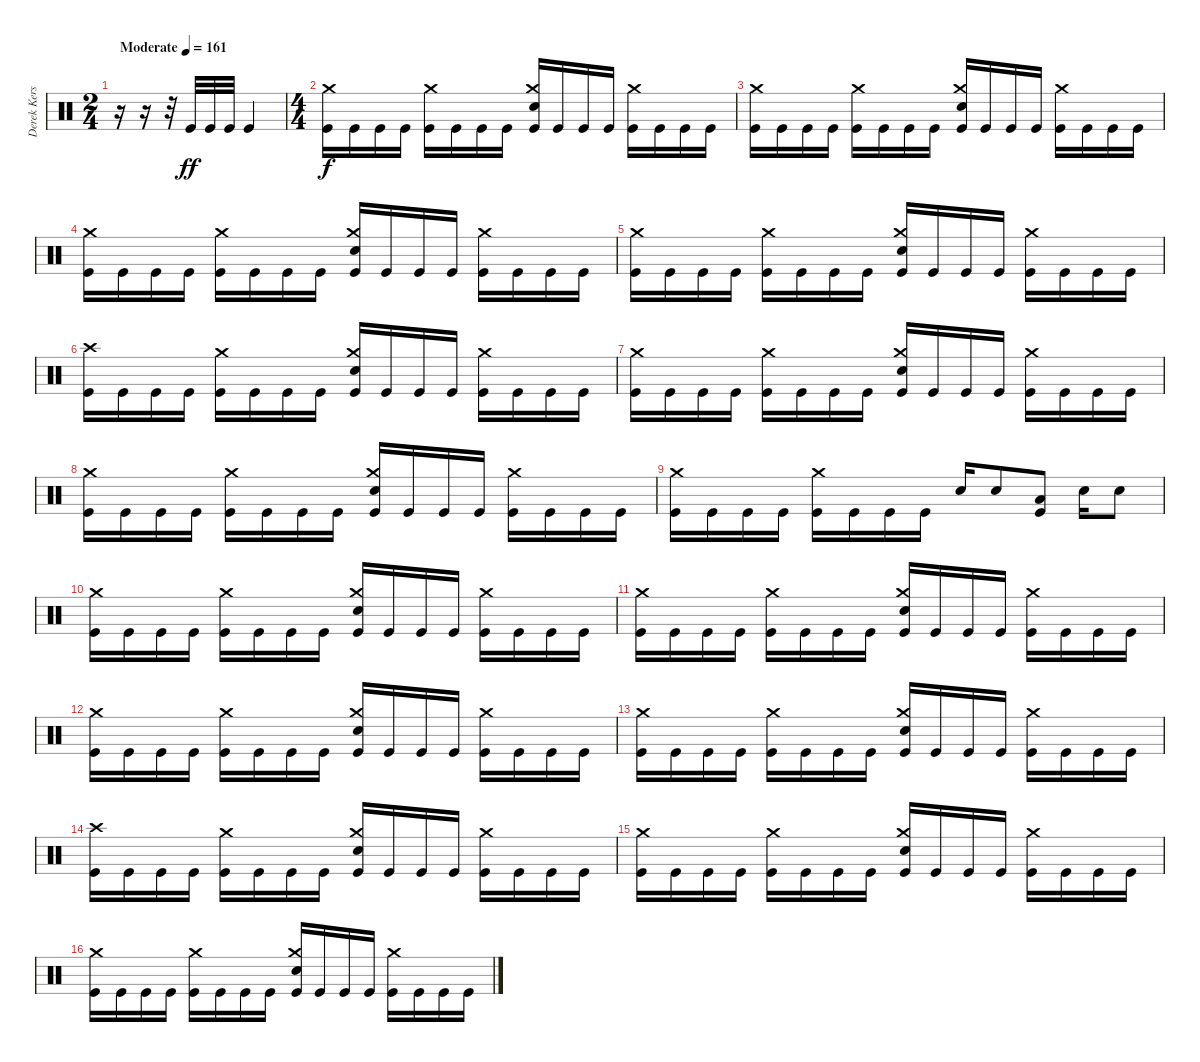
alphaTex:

\track ("Derek Kerswill" "Derek Kers") {instrument percussion}
\staff {score}
\articulation defaults
\ts (2 4)
\tempo (161 "Moderate")
\clef neutral
\ks c
r.16{dy ff} r.16 r.32 "Kick (hit)".32 "Kick (hit)".32 "Kick (hit)".32 "Kick (hit)".4 |
\ts (4 4)
("Crash medium (hit)" "Kick (hit)").16{dy f} "Kick (hit)".16 "Kick (hit)".16 "Kick (hit)".16 ("Crash medium (hit)" "Kick (hit)").16 "Kick (hit)".16 "Kick (hit)".16 "Kick (hit)".16 ("Crash medium (hit)" "Electric Snare (hit)" "Kick (hit)").16 "Kick (hit)".16 "Kick (hit)".16 "Kick (hit)".16 ("Crash medium (hit)" "Kick (hit)").16 "Kick (hit)".16 "Kick (hit)".16 "Kick (hit)".16 |
("Crash medium (hit)" "Kick (hit)").16 "Kick (hit)".16 "Kick (hit)".16 "Kick (hit)".16 ("Crash medium (hit)" "Kick (hit)").16 "Kick (hit)".16 "Kick (hit)".16 "Kick (hit)".16 ("Crash medium (hit)" "Electric Snare (hit)" "Kick (hit)").16 "Kick (hit)".16 "Kick (hit)".16 "Kick (hit)".16 ("Crash medium (hit)" "Kick (hit)").16 "Kick (hit)".16 "Kick (hit)".16 "Kick (hit)".16 |
("Crash medium (hit)" "Kick (hit)").16 "Kick (hit)".16 "Kick (hit)".16 "Kick (hit)".16 ("Crash medium (hit)" "Kick (hit)").16 "Kick (hit)".16 "Kick (hit)".16 "Kick (hit)".16 ("Crash medium (hit)" "Electric Snare (hit)" "Kick (hit)").16 "Kick (hit)".16 "Kick (hit)".16 "Kick (hit)".16 ("Crash medium (hit)" "Kick (hit)").16 "Kick (hit)".16 "Kick (hit)".16 "Kick (hit)".16 |
("Crash medium (hit)" "Kick (hit)").16 "Kick (hit)".16 "Kick (hit)".16 "Kick (hit)".16 ("Crash medium (hit)" "Kick (hit)").16 "Kick (hit)".16 "Kick (hit)".16 "Kick (hit)".16 ("Crash medium (hit)" "Electric Snare (hit)" "Kick (hit)").16 "Kick (hit)".16 "Kick (hit)".16 "Kick (hit)".16 ("Crash medium (hit)" "Kick (hit)").16 "Kick (hit)".16 "Kick (hit)".16 "Kick (hit)".16 |
("Crash high (hit)" "Kick (hit)").16 "Kick (hit)".16 "Kick (hit)".16 "Kick (hit)".16 ("Crash medium (hit)" "Kick (hit)").16 "Kick (hit)".16 "Kick (hit)".16 "Kick (hit)".16 ("Crash medium (hit)" "Electric Snare (hit)" "Kick (hit)").16 "Kick (hit)".16 "Kick (hit)".16 "Kick (hit)".16 ("Crash medium (hit)" "Kick (hit)").16 "Kick (hit)".16 "Kick (hit)".16 "Kick (hit)".16 |
("Crash medium (hit)" "Kick (hit)").16 "Kick (hit)".16 "Kick (hit)".16 "Kick (hit)".16 ("Crash medium (hit)" "Kick (hit)").16 "Kick (hit)".16 "Kick (hit)".16 "Kick (hit)".16 ("Crash medium (hit)" "Electric Snare (hit)" "Kick (hit)").16 "Kick (hit)".16 "Kick (hit)".16 "Kick (hit)".16 ("Crash medium (hit)" "Kick (hit)").16 "Kick (hit)".16 "Kick (hit)".16 "Kick (hit)".16 |
("Crash medium (hit)" "Kick (hit)").16 "Kick (hit)".16 "Kick (hit)".16 "Kick (hit)".16 ("Crash medium (hit)" "Kick (hit)").16 "Kick (hit)".16 "Kick (hit)".16 "Kick (hit)".16 ("Crash medium (hit)" "Electric Snare (hit)" "Kick (hit)").16 "Kick (hit)".16 "Kick (hit)".16 "Kick (hit)".16 ("Crash medium (hit)" "Kick (hit)").16 "Kick (hit)".16 "Kick (hit)".16 "Kick (hit)".16 |
("Crash medium (hit)" "Kick (hit)").16 "Kick (hit)".16 "Kick (hit)".16 "Kick (hit)".16 ("Crash medium (hit)" "Kick (hit)").16 "Kick (hit)".16 "Kick (hit)".16 "Kick (hit)".16 "Electric Snare (hit)".16 "Electric Snare (hit)".8 ("Low Tom (hit)" "Kick (hit)").8 "Electric Snare (hit)".16 "Electric Snare (hit)".8 |
("Crash medium (hit)" "Kick (hit)").16 "Kick (hit)".16 "Kick (hit)".16 "Kick (hit)".16 ("Crash medium (hit)" "Kick (hit)").16 "Kick (hit)".16 "Kick (hit)".16 "Kick (hit)".16 ("Crash medium (hit)" "Electric Snare (hit)" "Kick (hit)").16 "Kick (hit)".16 "Kick (hit)".16 "Kick (hit)".16 ("Crash medium (hit)" "Kick (hit)").16 "Kick (hit)".16 "Kick (hit)".16 "Kick (hit)".16 |
("Crash medium (hit)" "Kick (hit)").16 "Kick (hit)".16 "Kick (hit)".16 "Kick (hit)".16 ("Crash medium (hit)" "Kick (hit)").16 "Kick (hit)".16 "Kick (hit)".16 "Kick (hit)".16 ("Crash medium (hit)" "Electric Snare (hit)" "Kick (hit)").16 "Kick (hit)".16 "Kick (hit)".16 "Kick (hit)".16 ("Crash medium (hit)" "Kick (hit)").16 "Kick (hit)".16 "Kick (hit)".16 "Kick (hit)".16 |
("Crash medium (hit)" "Kick (hit)").16 "Kick (hit)".16 "Kick (hit)".16 "Kick (hit)".16 ("Crash medium (hit)" "Kick (hit)").16 "Kick (hit)".16 "Kick (hit)".16 "Kick (hit)".16 ("Crash medium (hit)" "Electric Snare (hit)" "Kick (hit)").16 "Kick (hit)".16 "Kick (hit)".16 "Kick (hit)".16 ("Crash medium (hit)" "Kick (hit)").16 "Kick (hit)".16 "Kick (hit)".16 "Kick (hit)".16 |
("Crash medium (hit)" "Kick (hit)").16 "Kick (hit)".16 "Kick (hit)".16 "Kick (hit)".16 ("Crash medium (hit)" "Kick (hit)").16 "Kick (hit)".16 "Kick (hit)".16 "Kick (hit)".16 ("Crash medium (hit)" "Electric Snare (hit)" "Kick (hit)").16 "Kick (hit)".16 "Kick (hit)".16 "Kick (hit)".16 ("Crash medium (hit)" "Kick (hit)").16 "Kick (hit)".16 "Kick (hit)".16 "Kick (hit)".16 |
("Crash high (hit)" "Kick (hit)").16 "Kick (hit)".16 "Kick (hit)".16 "Kick (hit)".16 ("Crash medium (hit)" "Kick (hit)").16 "Kick (hit)".16 "Kick (hit)".16 "Kick (hit)".16 ("Crash medium (hit)" "Electric Snare (hit)" "Kick (hit)").16 "Kick (hit)".16 "Kick (hit)".16 "Kick (hit)".16 ("Crash medium (hit)" "Kick (hit)").16 "Kick (hit)".16 "Kick (hit)".16 "Kick (hit)".16 |
("Crash medium (hit)" "Kick (hit)").16 "Kick (hit)".16 "Kick (hit)".16 "Kick (hit)".16 ("Crash medium (hit)" "Kick (hit)").16 "Kick (hit)".16 "Kick (hit)".16 "Kick (hit)".16 ("Crash medium (hit)" "Electric Snare (hit)" "Kick (hit)").16 "Kick (hit)".16 "Kick (hit)".16 "Kick (hit)".16 ("Crash medium (hit)" "Kick (hit)").16 "Kick (hit)".16 "Kick (hit)".16 "Kick (hit)".16 |
("Crash medium (hit)" "Kick (hit)").16 "Kick (hit)".16 "Kick (hit)".16 "Kick (hit)".16 ("Crash medium (hit)" "Kick (hit)").16 "Kick (hit)".16 "Kick (hit)".16 "Kick (hit)".16 ("Crash medium (hit)" "Electric Snare (hit)" "Kick (hit)").16 "Kick (hit)".16 "Kick (hit)".16 "Kick (hit)".16 ("Crash medium (hit)" "Kick (hit)").16 "Kick (hit)".16 "Kick (hit)".16 "Kick (hit)".16
